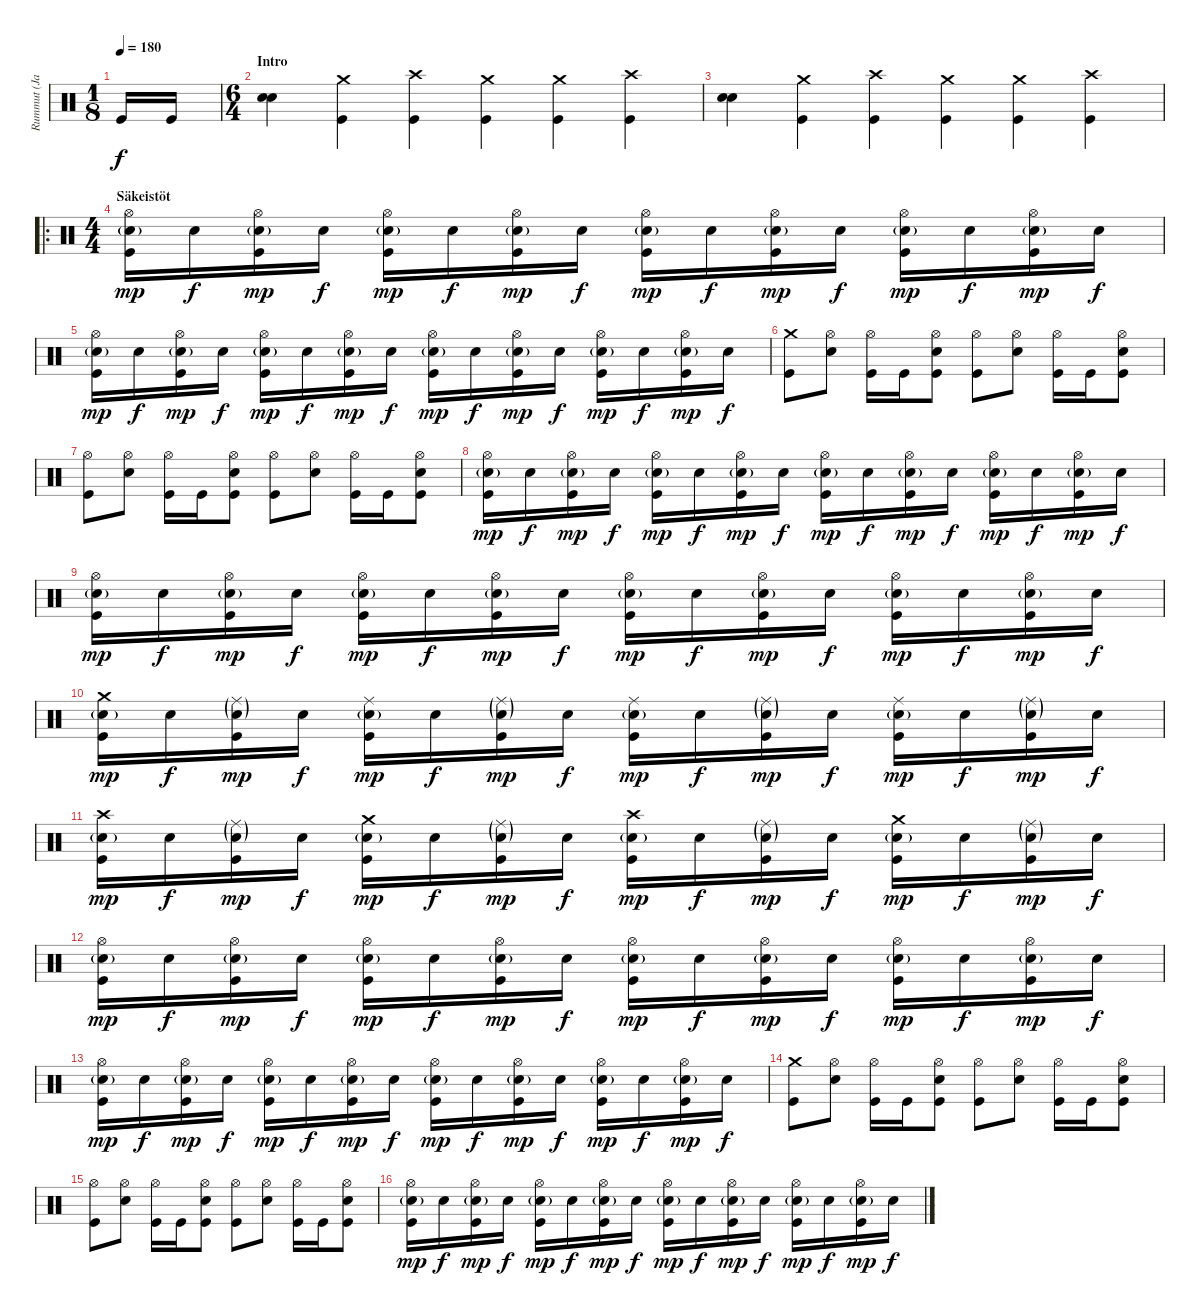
\track ("Rummut (Janne)" "Rummut (Ja") {instrument percussion}
\staff {score}
\articulation defaults
\ts (1 8)
\tempo 180
\clef neutral
\ks c "Kick (hit)".16{dy f} "Kick (hit)".16
|
\ts (6 4)
\section ("" "Intro")
("Snare (hit) 2" "Snare (hit) 2").4 ("Crash medium (hit)" "Kick (hit)").4 ("Crash high (hit)" "Kick (hit)").4 ("Crash medium (hit)" "Kick (hit)").4 ("Crash medium (hit)" "Kick (hit)").4 ("Crash high (hit)" "Kick (hit)").4 |
("Snare (hit) 2" "Snare (hit) 2").4 ("Crash medium (hit)" "Kick (hit)").4 ("Crash high (hit)" "Kick (hit)").4 ("Crash medium (hit)" "Kick (hit)").4 ("Crash medium (hit)" "Kick (hit)").4 ("Crash high (hit)" "Kick (hit)").4 |
\ro
\ts (4 4)
\section ("" "Säkeistöt")
("Hi-Hat (open)" "Snare (hit) 2"{g} "Kick (hit)").16{dy mp} "Snare (hit) 2".16{dy f} ("Hi-Hat (open)" "Snare (hit) 2"{g} "Kick (hit)").16{dy mp} "Snare (hit) 2".16{dy f} ("Hi-Hat (open)" "Snare (hit) 2"{g} "Kick (hit)").16{dy mp} "Snare (hit) 2".16{dy f} ("Hi-Hat (open)" "Snare (hit) 2"{g} "Kick (hit)").16{dy mp} "Snare (hit) 2".16{dy f} ("Hi-Hat (open)" "Snare (hit) 2"{g} "Kick (hit)").16{dy mp} "Snare (hit) 2".16{dy f} ("Hi-Hat (open)" "Snare (hit) 2"{g} "Kick (hit)").16{dy mp} "Snare (hit) 2".16{dy f} ("Hi-Hat (open)" "Snare (hit) 2"{g} "Kick (hit)").16{dy mp} "Snare (hit) 2".16{dy f} ("Hi-Hat (open)" "Snare (hit) 2"{g} "Kick (hit)").16{dy mp} "Snare (hit) 2".16{dy f} |
("Hi-Hat (open)" "Snare (hit) 2"{g} "Kick (hit)").16{dy mp} "Snare (hit) 2".16{dy f} ("Hi-Hat (open)" "Snare (hit) 2"{g} "Kick (hit)").16{dy mp} "Snare (hit) 2".16{dy f} ("Hi-Hat (open)" "Snare (hit) 2"{g} "Kick (hit)").16{dy mp} "Snare (hit) 2".16{dy f} ("Hi-Hat (open)" "Snare (hit) 2"{g} "Kick (hit)").16{dy mp} "Snare (hit) 2".16{dy f} ("Hi-Hat (open)" "Snare (hit) 2"{g} "Kick (hit)").16{dy mp} "Snare (hit) 2".16{dy f} ("Hi-Hat (open)" "Snare (hit) 2"{g} "Kick (hit)").16{dy mp} "Snare (hit) 2".16{dy f} ("Hi-Hat (open)" "Snare (hit) 2"{g} "Kick (hit)").16{dy mp} "Snare (hit) 2".16{dy f} ("Hi-Hat (open)" "Snare (hit) 2"{g} "Kick (hit)").16{dy mp} "Snare (hit) 2".16{dy f} |
("Crash medium (hit)" "Kick (hit)").8 ("Hi-Hat (open)" "Snare (hit) 2").8 ("Hi-Hat (open)" "Kick (hit)").16 "Kick (hit)".16 ("Hi-Hat (open)" "Snare (hit) 2" "Kick (hit)").8 ("Hi-Hat (open)" "Kick (hit)").8 ("Hi-Hat (open)" "Snare (hit) 2").8 ("Hi-Hat (open)" "Kick (hit)").16 "Kick (hit)".16 ("Hi-Hat (open)" "Snare (hit) 2" "Kick (hit)").8 |
("Hi-Hat (open)" "Kick (hit)").8 ("Hi-Hat (open)" "Snare (hit) 2").8 ("Hi-Hat (open)" "Kick (hit)").16 "Kick (hit)".16 ("Hi-Hat (open)" "Snare (hit) 2" "Kick (hit)").8 ("Hi-Hat (open)" "Kick (hit)").8 ("Hi-Hat (open)" "Snare (hit) 2").8 ("Hi-Hat (open)" "Kick (hit)").16 "Kick (hit)".16 ("Hi-Hat (open)" "Snare (hit) 2" "Kick (hit)").8 |
("Hi-Hat (open)" "Snare (hit) 2"{g} "Kick (hit)").16{dy mp} "Snare (hit) 2".16{dy f} ("Hi-Hat (open)" "Snare (hit) 2"{g} "Kick (hit)").16{dy mp} "Snare (hit) 2".16{dy f} ("Hi-Hat (open)" "Snare (hit) 2"{g} "Kick (hit)").16{dy mp} "Snare (hit) 2".16{dy f} ("Hi-Hat (open)" "Snare (hit) 2"{g} "Kick (hit)").16{dy mp} "Snare (hit) 2".16{dy f} ("Hi-Hat (open)" "Snare (hit) 2"{g} "Kick (hit)").16{dy mp} "Snare (hit) 2".16{dy f} ("Hi-Hat (open)" "Snare (hit) 2"{g} "Kick (hit)").16{dy mp} "Snare (hit) 2".16{dy f} ("Hi-Hat (open)" "Snare (hit) 2"{g} "Kick (hit)").16{dy mp} "Snare (hit) 2".16{dy f} ("Hi-Hat (open)" "Snare (hit) 2"{g} "Kick (hit)").16{dy mp} "Snare (hit) 2".16{dy f} |
("Hi-Hat (open)" "Snare (hit) 2"{g} "Kick (hit)").16{dy mp} "Snare (hit) 2".16{dy f} ("Hi-Hat (open)" "Snare (hit) 2"{g} "Kick (hit)").16{dy mp} "Snare (hit) 2".16{dy f} ("Hi-Hat (open)" "Snare (hit) 2"{g} "Kick (hit)").16{dy mp} "Snare (hit) 2".16{dy f} ("Hi-Hat (open)" "Snare (hit) 2"{g} "Kick (hit)").16{dy mp} "Snare (hit) 2".16{dy f} ("Hi-Hat (open)" "Snare (hit) 2"{g} "Kick (hit)").16{dy mp} "Snare (hit) 2".16{dy f} ("Hi-Hat (open)" "Snare (hit) 2"{g} "Kick (hit)").16{dy mp} "Snare (hit) 2".16{dy f} ("Hi-Hat (open)" "Snare (hit) 2"{g} "Kick (hit)").16{dy mp} "Snare (hit) 2".16{dy f} ("Hi-Hat (open)" "Snare (hit) 2"{g} "Kick (hit)").16{dy mp} "Snare (hit) 2".16{dy f} |
("Crash medium (hit)" "Snare (hit) 2"{g} "Kick (hit)").16{dy mp} "Snare (hit) 2".16{dy f} ("Ride (middle)"{g} "Snare (hit) 2"{g} "Kick (hit)").16{dy mp} "Snare (hit) 2".16{dy f} ("Ride (middle)" "Snare (hit) 2"{g} "Kick (hit)").16{dy mp} "Snare (hit) 2".16{dy f} ("Ride (middle)"{g} "Snare (hit) 2"{g} "Kick (hit)").16{dy mp} "Snare (hit) 2".16{dy f} ("Ride (middle)" "Snare (hit) 2"{g} "Kick (hit)").16{dy mp} "Snare (hit) 2".16{dy f} ("Ride (middle)"{g} "Snare (hit) 2"{g} "Kick (hit)").16{dy mp} "Snare (hit) 2".16{dy f} ("Ride (middle)" "Snare (hit) 2"{g} "Kick (hit)").16{dy mp} "Snare (hit) 2".16{dy f} ("Ride (middle)"{g} "Snare (hit) 2"{g} "Kick (hit)").16{dy mp} "Snare (hit) 2".16{dy f} |
("Crash high (hit)" "Snare (hit) 2"{g} "Kick (hit)").16{dy mp} "Snare (hit) 2".16{dy f} ("Ride (middle)"{g} "Snare (hit) 2"{g} "Kick (hit)").16{dy mp} "Snare (hit) 2".16{dy f} ("Crash medium (hit)" "Snare (hit) 2"{g} "Kick (hit)").16{dy mp} "Snare (hit) 2".16{dy f} ("Ride (middle)"{g} "Snare (hit) 2"{g} "Kick (hit)").16{dy mp} "Snare (hit) 2".16{dy f} ("Crash high (hit)" "Snare (hit) 2"{g} "Kick (hit)").16{dy mp} "Snare (hit) 2".16{dy f} ("Ride (middle)"{g} "Snare (hit) 2"{g} "Kick (hit)").16{dy mp} "Snare (hit) 2".16{dy f} ("Crash medium (hit)" "Snare (hit) 2"{g} "Kick (hit)").16{dy mp} "Snare (hit) 2".16{dy f} ("Ride (middle)"{g} "Snare (hit) 2"{g} "Kick (hit)").16{dy mp} "Snare (hit) 2".16{dy f} |
("Hi-Hat (open)" "Snare (hit) 2"{g} "Kick (hit)").16{dy mp} "Snare (hit) 2".16{dy f} ("Hi-Hat (open)" "Snare (hit) 2"{g} "Kick (hit)").16{dy mp} "Snare (hit) 2".16{dy f} ("Hi-Hat (open)" "Snare (hit) 2"{g} "Kick (hit)").16{dy mp} "Snare (hit) 2".16{dy f} ("Hi-Hat (open)" "Snare (hit) 2"{g} "Kick (hit)").16{dy mp} "Snare (hit) 2".16{dy f} ("Hi-Hat (open)" "Snare (hit) 2"{g} "Kick (hit)").16{dy mp} "Snare (hit) 2".16{dy f} ("Hi-Hat (open)" "Snare (hit) 2"{g} "Kick (hit)").16{dy mp} "Snare (hit) 2".16{dy f} ("Hi-Hat (open)" "Snare (hit) 2"{g} "Kick (hit)").16{dy mp} "Snare (hit) 2".16{dy f} ("Hi-Hat (open)" "Snare (hit) 2"{g} "Kick (hit)").16{dy mp} "Snare (hit) 2".16{dy f} |
("Hi-Hat (open)" "Snare (hit) 2"{g} "Kick (hit)").16{dy mp} "Snare (hit) 2".16{dy f} ("Hi-Hat (open)" "Snare (hit) 2"{g} "Kick (hit)").16{dy mp} "Snare (hit) 2".16{dy f} ("Hi-Hat (open)" "Snare (hit) 2"{g} "Kick (hit)").16{dy mp} "Snare (hit) 2".16{dy f} ("Hi-Hat (open)" "Snare (hit) 2"{g} "Kick (hit)").16{dy mp} "Snare (hit) 2".16{dy f} ("Hi-Hat (open)" "Snare (hit) 2"{g} "Kick (hit)").16{dy mp} "Snare (hit) 2".16{dy f} ("Hi-Hat (open)" "Snare (hit) 2"{g} "Kick (hit)").16{dy mp} "Snare (hit) 2".16{dy f} ("Hi-Hat (open)" "Snare (hit) 2"{g} "Kick (hit)").16{dy mp} "Snare (hit) 2".16{dy f} ("Hi-Hat (open)" "Snare (hit) 2"{g} "Kick (hit)").16{dy mp} "Snare (hit) 2".16{dy f} |
("Crash medium (hit)" "Kick (hit)").8 ("Hi-Hat (open)" "Snare (hit) 2").8 ("Hi-Hat (open)" "Kick (hit)").16 "Kick (hit)".16 ("Hi-Hat (open)" "Snare (hit) 2" "Kick (hit)").8 ("Hi-Hat (open)" "Kick (hit)").8 ("Hi-Hat (open)" "Snare (hit) 2").8 ("Hi-Hat (open)" "Kick (hit)").16 "Kick (hit)".16 ("Hi-Hat (open)" "Snare (hit) 2" "Kick (hit)").8 |
("Hi-Hat (open)" "Kick (hit)").8 ("Hi-Hat (open)" "Snare (hit) 2").8 ("Hi-Hat (open)" "Kick (hit)").16 "Kick (hit)".16 ("Hi-Hat (open)" "Snare (hit) 2" "Kick (hit)").8 ("Hi-Hat (open)" "Kick (hit)").8 ("Hi-Hat (open)" "Snare (hit) 2").8 ("Hi-Hat (open)" "Kick (hit)").16 "Kick (hit)".16 ("Hi-Hat (open)" "Snare (hit) 2" "Kick (hit)").8 |
("Hi-Hat (open)" "Snare (hit) 2"{g} "Kick (hit)").16{dy mp} "Snare (hit) 2".16{dy f} ("Hi-Hat (open)" "Snare (hit) 2"{g} "Kick (hit)").16{dy mp} "Snare (hit) 2".16{dy f} ("Hi-Hat (open)" "Snare (hit) 2"{g} "Kick (hit)").16{dy mp} "Snare (hit) 2".16{dy f} ("Hi-Hat (open)" "Snare (hit) 2"{g} "Kick (hit)").16{dy mp} "Snare (hit) 2".16{dy f} ("Hi-Hat (open)" "Snare (hit) 2"{g} "Kick (hit)").16{dy mp} "Snare (hit) 2".16{dy f} ("Hi-Hat (open)" "Snare (hit) 2"{g} "Kick (hit)").16{dy mp} "Snare (hit) 2".16{dy f} ("Hi-Hat (open)" "Snare (hit) 2"{g} "Kick (hit)").16{dy mp} "Snare (hit) 2".16{dy f} ("Hi-Hat (open)" "Snare (hit) 2"{g} "Kick (hit)").16{dy mp} "Snare (hit) 2".16{dy f}
